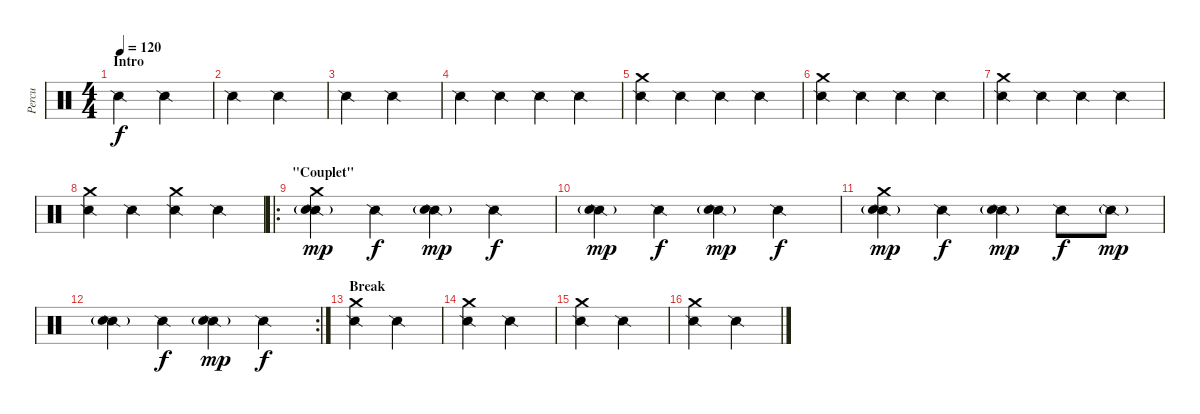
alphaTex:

\track ("Percu" "Percu") {instrument percussion}
\staff {score}
\articulation defaults
\ts (4 4)
\section ("" "Intro")
\tempo 120
\clef neutral
\ks c "Snare (side stick) 2".2{dy f} "Snare (side stick) 2".2
|
"Snare (side stick) 2".2 "Snare (side stick) 2".2 |
"Snare (side stick) 2".2 "Snare (side stick) 2".2 |
"Snare (side stick) 2".4 "Snare (side stick) 2".4 "Snare (side stick) 2".4 "Snare (side stick) 2".4 |
("Snare (side stick) 2" "Crash medium (hit)").4 "Snare (side stick) 2".4 "Snare (side stick) 2".4 "Snare (side stick) 2".4 |
("Snare (side stick) 2" "Crash medium (hit)").4 "Snare (side stick) 2".4 "Snare (side stick) 2".4 "Snare (side stick) 2".4 |
("Snare (side stick) 2" "Crash medium (hit)").4 "Snare (side stick) 2".4 "Snare (side stick) 2".4 "Snare (side stick) 2".4 |
("Snare (side stick) 2" "Crash medium (hit)").4 "Snare (side stick) 2".4 ("Snare (side stick) 2" "Crash medium (hit)").4 "Snare (side stick) 2".4 |
\ro
\section ("" "\"Couplet\"")
("Snare (side stick) 2" "Crash medium (hit)" "Electric Snare (hit)"{g}).4{dy mp} "Snare (side stick) 2".4{dy f} ("Snare (side stick) 2" "Electric Snare (hit)"{g}).4{dy mp} "Snare (side stick) 2".4{dy f} |
("Snare (side stick) 2" "Electric Snare (hit)"{g}).4{dy mp} "Snare (side stick) 2".4{dy f} ("Snare (side stick) 2" "Electric Snare (hit)"{g}).4{dy mp} "Snare (side stick) 2".4{dy f} |
("Snare (side stick) 2" "Crash medium (hit)" "Electric Snare (hit)"{g}).4{dy mp} "Snare (side stick) 2".4{dy f} ("Snare (side stick) 2" "Electric Snare (hit)"{g}).4{dy mp} "Snare (side stick) 2".8{dy f} "Snare (side stick) 2"{g}.8{dy mp} |
\rc 2
("Snare (side stick) 2" "Electric Snare (hit)"{g}).4 "Snare (side stick) 2".4{dy f} ("Snare (side stick) 2" "Electric Snare (hit)"{g}).4{dy mp} "Snare (side stick) 2".4{dy f} |
\section ("" "Break")
("Snare (side stick) 2" "Crash medium (hit)").2 "Snare (side stick) 2".2 |
("Snare (side stick) 2" "Crash medium (hit)").2 "Snare (side stick) 2".2 |
("Snare (side stick) 2" "Crash medium (hit)").2 "Snare (side stick) 2".2 |
("Snare (side stick) 2" "Crash medium (hit)").2 "Snare (side stick) 2".2
